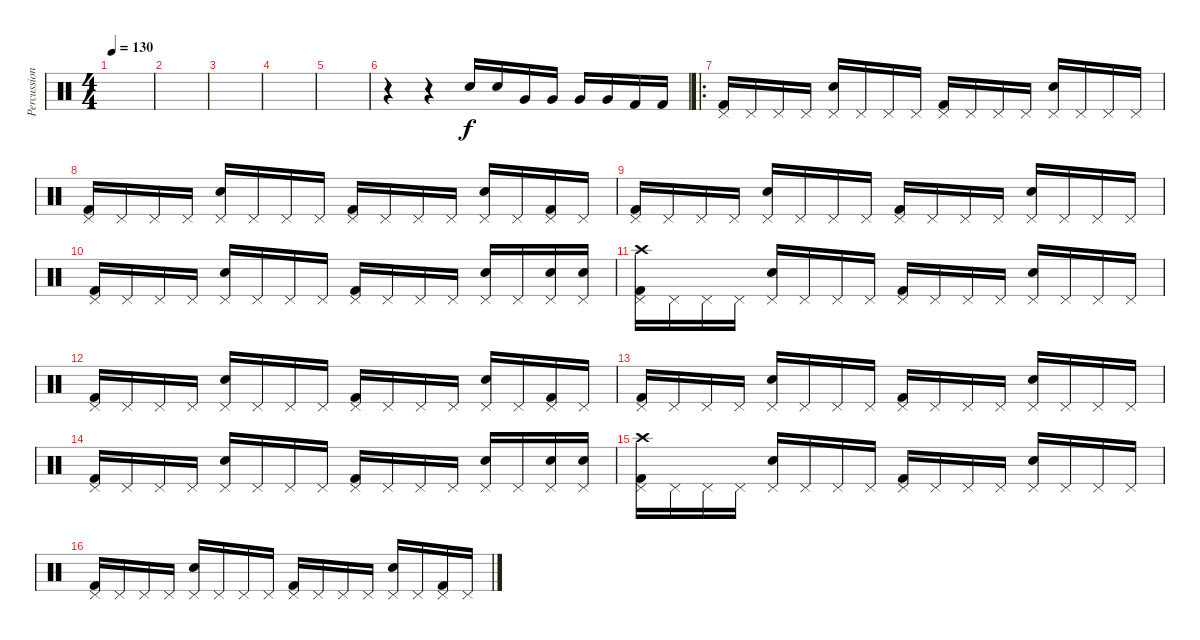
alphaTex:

\track ("Percussion" "Percussion") {instrument percussion}
\staff {score}
\articulation defaults
\ts (4 4)
\tempo 130
\clef neutral
\ks c
|
|
|
|
|
r.4 r.4 "Snare (hit) 2".16 "Snare (hit) 2".16 "Very Low Tom (hit)".16 "Very Low Tom (hit)".16 "Very Low Tom (hit)".16 "Very Low Tom (hit)".16 "Kick (hit) 2".16 "Kick (hit) 2".16 |
\ro
("Pedal Hi-Hat (hit)" "Kick (hit) 2").16 "Pedal Hi-Hat (hit)".16 "Pedal Hi-Hat (hit)".16 "Pedal Hi-Hat (hit)".16 ("Pedal Hi-Hat (hit)" "Snare (hit) 2").16 "Pedal Hi-Hat (hit)".16 "Pedal Hi-Hat (hit)".16 "Pedal Hi-Hat (hit)".16 ("Pedal Hi-Hat (hit)" "Kick (hit) 2").16 "Pedal Hi-Hat (hit)".16 "Pedal Hi-Hat (hit)".16 "Pedal Hi-Hat (hit)".16 ("Pedal Hi-Hat (hit)" "Snare (hit) 2").16 "Pedal Hi-Hat (hit)".16 "Pedal Hi-Hat (hit)".16 "Pedal Hi-Hat (hit)".16 |
("Pedal Hi-Hat (hit)" "Kick (hit) 2").16 "Pedal Hi-Hat (hit)".16 "Pedal Hi-Hat (hit)".16 "Pedal Hi-Hat (hit)".16 ("Pedal Hi-Hat (hit)" "Snare (hit) 2").16 "Pedal Hi-Hat (hit)".16 "Pedal Hi-Hat (hit)".16 "Pedal Hi-Hat (hit)".16 ("Pedal Hi-Hat (hit)" "Kick (hit) 2").16 "Pedal Hi-Hat (hit)".16 "Pedal Hi-Hat (hit)".16 "Pedal Hi-Hat (hit)".16 ("Pedal Hi-Hat (hit)" "Snare (hit) 2").16 "Pedal Hi-Hat (hit)".16 ("Pedal Hi-Hat (hit)" "Kick (hit) 2").16 "Pedal Hi-Hat (hit)".16 |
("Pedal Hi-Hat (hit)" "Kick (hit) 2").16 "Pedal Hi-Hat (hit)".16 "Pedal Hi-Hat (hit)".16 "Pedal Hi-Hat (hit)".16 ("Pedal Hi-Hat (hit)" "Snare (hit) 2").16 "Pedal Hi-Hat (hit)".16 "Pedal Hi-Hat (hit)".16 "Pedal Hi-Hat (hit)".16 ("Pedal Hi-Hat (hit)" "Kick (hit) 2").16 "Pedal Hi-Hat (hit)".16 "Pedal Hi-Hat (hit)".16 "Pedal Hi-Hat (hit)".16 ("Pedal Hi-Hat (hit)" "Snare (hit) 2").16 "Pedal Hi-Hat (hit)".16 "Pedal Hi-Hat (hit)".16 "Pedal Hi-Hat (hit)".16 |
("Pedal Hi-Hat (hit)" "Kick (hit) 2").16 "Pedal Hi-Hat (hit)".16 "Pedal Hi-Hat (hit)".16 "Pedal Hi-Hat (hit)".16 ("Pedal Hi-Hat (hit)" "Snare (hit) 2").16 "Pedal Hi-Hat (hit)".16 "Pedal Hi-Hat (hit)".16 "Pedal Hi-Hat (hit)".16 ("Pedal Hi-Hat (hit)" "Kick (hit) 2").16 "Pedal Hi-Hat (hit)".16 "Pedal Hi-Hat (hit)".16 "Pedal Hi-Hat (hit)".16 ("Pedal Hi-Hat (hit)" "Snare (hit) 2").16 "Pedal Hi-Hat (hit)".16 ("Pedal Hi-Hat (hit)" "Snare (hit) 2").16 ("Pedal Hi-Hat (hit)" "Snare (hit) 2").16 |
("Pedal Hi-Hat (hit)" "Crash high (hit)" "Kick (hit) 2").16 "Pedal Hi-Hat (hit)".16 "Pedal Hi-Hat (hit)".16 "Pedal Hi-Hat (hit)".16 ("Pedal Hi-Hat (hit)" "Snare (hit) 2").16 "Pedal Hi-Hat (hit)".16 "Pedal Hi-Hat (hit)".16 "Pedal Hi-Hat (hit)".16 ("Pedal Hi-Hat (hit)" "Kick (hit) 2").16 "Pedal Hi-Hat (hit)".16 "Pedal Hi-Hat (hit)".16 "Pedal Hi-Hat (hit)".16 ("Pedal Hi-Hat (hit)" "Snare (hit) 2").16 "Pedal Hi-Hat (hit)".16 "Pedal Hi-Hat (hit)".16 "Pedal Hi-Hat (hit)".16 |
("Pedal Hi-Hat (hit)" "Kick (hit) 2").16 "Pedal Hi-Hat (hit)".16 "Pedal Hi-Hat (hit)".16 "Pedal Hi-Hat (hit)".16 ("Pedal Hi-Hat (hit)" "Snare (hit) 2").16 "Pedal Hi-Hat (hit)".16 "Pedal Hi-Hat (hit)".16 "Pedal Hi-Hat (hit)".16 ("Pedal Hi-Hat (hit)" "Kick (hit) 2").16 "Pedal Hi-Hat (hit)".16 "Pedal Hi-Hat (hit)".16 "Pedal Hi-Hat (hit)".16 ("Pedal Hi-Hat (hit)" "Snare (hit) 2").16 "Pedal Hi-Hat (hit)".16 ("Pedal Hi-Hat (hit)" "Kick (hit) 2").16 "Pedal Hi-Hat (hit)".16 |
("Pedal Hi-Hat (hit)" "Kick (hit) 2").16 "Pedal Hi-Hat (hit)".16 "Pedal Hi-Hat (hit)".16 "Pedal Hi-Hat (hit)".16 ("Pedal Hi-Hat (hit)" "Snare (hit) 2").16 "Pedal Hi-Hat (hit)".16 "Pedal Hi-Hat (hit)".16 "Pedal Hi-Hat (hit)".16 ("Pedal Hi-Hat (hit)" "Kick (hit) 2").16 "Pedal Hi-Hat (hit)".16 "Pedal Hi-Hat (hit)".16 "Pedal Hi-Hat (hit)".16 ("Pedal Hi-Hat (hit)" "Snare (hit) 2").16 "Pedal Hi-Hat (hit)".16 "Pedal Hi-Hat (hit)".16 "Pedal Hi-Hat (hit)".16 |
("Pedal Hi-Hat (hit)" "Kick (hit) 2").16 "Pedal Hi-Hat (hit)".16 "Pedal Hi-Hat (hit)".16 "Pedal Hi-Hat (hit)".16 ("Pedal Hi-Hat (hit)" "Snare (hit) 2").16 "Pedal Hi-Hat (hit)".16 "Pedal Hi-Hat (hit)".16 "Pedal Hi-Hat (hit)".16 ("Pedal Hi-Hat (hit)" "Kick (hit) 2").16 "Pedal Hi-Hat (hit)".16 "Pedal Hi-Hat (hit)".16 "Pedal Hi-Hat (hit)".16 ("Pedal Hi-Hat (hit)" "Snare (hit) 2").16 "Pedal Hi-Hat (hit)".16 ("Pedal Hi-Hat (hit)" "Snare (hit) 2").16 ("Pedal Hi-Hat (hit)" "Snare (hit) 2").16 |
("Pedal Hi-Hat (hit)" "Crash high (hit)" "Kick (hit) 2").16 "Pedal Hi-Hat (hit)".16 "Pedal Hi-Hat (hit)".16 "Pedal Hi-Hat (hit)".16 ("Pedal Hi-Hat (hit)" "Snare (hit) 2").16 "Pedal Hi-Hat (hit)".16 "Pedal Hi-Hat (hit)".16 "Pedal Hi-Hat (hit)".16 ("Pedal Hi-Hat (hit)" "Kick (hit) 2").16 "Pedal Hi-Hat (hit)".16 "Pedal Hi-Hat (hit)".16 "Pedal Hi-Hat (hit)".16 ("Pedal Hi-Hat (hit)" "Snare (hit) 2").16 "Pedal Hi-Hat (hit)".16 "Pedal Hi-Hat (hit)".16 "Pedal Hi-Hat (hit)".16 |
("Pedal Hi-Hat (hit)" "Kick (hit) 2").16 "Pedal Hi-Hat (hit)".16 "Pedal Hi-Hat (hit)".16 "Pedal Hi-Hat (hit)".16 ("Pedal Hi-Hat (hit)" "Snare (hit) 2").16 "Pedal Hi-Hat (hit)".16 "Pedal Hi-Hat (hit)".16 "Pedal Hi-Hat (hit)".16 ("Pedal Hi-Hat (hit)" "Kick (hit) 2").16 "Pedal Hi-Hat (hit)".16 "Pedal Hi-Hat (hit)".16 "Pedal Hi-Hat (hit)".16 ("Pedal Hi-Hat (hit)" "Snare (hit) 2").16 "Pedal Hi-Hat (hit)".16 ("Pedal Hi-Hat (hit)" "Kick (hit) 2").16 "Pedal Hi-Hat (hit)".16
